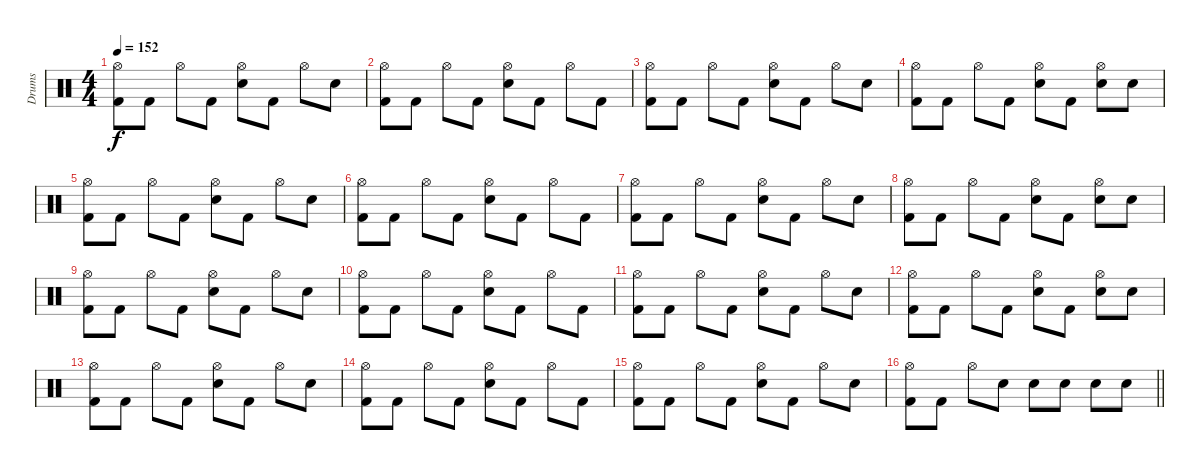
\track ("Drums" "Drums") {instrument percussion}
\staff {score}
\articulation defaults
\ts (4 4)
\tempo 152
\clef neutral
\ks c
("Hi-Hat (open)" "Kick (hit) 2").8{dy f} "Kick (hit) 2".8 "Hi-Hat (open)".8 "Kick (hit) 2".8 ("Hi-Hat (open)" "Electric Snare (hit)").8 "Kick (hit) 2".8 "Hi-Hat (open)".8 "Electric Snare (hit)".8 |
("Hi-Hat (open)" "Kick (hit) 2").8 "Kick (hit) 2".8 "Hi-Hat (open)".8 "Kick (hit) 2".8 ("Hi-Hat (open)" "Electric Snare (hit)").8 "Kick (hit) 2".8 "Hi-Hat (open)".8 "Kick (hit) 2".8 |
("Hi-Hat (open)" "Kick (hit) 2").8 "Kick (hit) 2".8 "Hi-Hat (open)".8 "Kick (hit) 2".8 ("Hi-Hat (open)" "Electric Snare (hit)").8 "Kick (hit) 2".8 "Hi-Hat (open)".8 "Electric Snare (hit)".8 |
("Hi-Hat (open)" "Kick (hit) 2").8 "Kick (hit) 2".8 "Hi-Hat (open)".8 "Kick (hit) 2".8 ("Hi-Hat (open)" "Electric Snare (hit)").8 "Kick (hit) 2".8 ("Hi-Hat (open)" "Electric Snare (hit)").8 "Electric Snare (hit)".8 |
("Hi-Hat (open)" "Kick (hit) 2").8 "Kick (hit) 2".8 "Hi-Hat (open)".8 "Kick (hit) 2".8 ("Hi-Hat (open)" "Electric Snare (hit)").8 "Kick (hit) 2".8 "Hi-Hat (open)".8 "Electric Snare (hit)".8 |
("Hi-Hat (open)" "Kick (hit) 2").8 "Kick (hit) 2".8 "Hi-Hat (open)".8 "Kick (hit) 2".8 ("Hi-Hat (open)" "Electric Snare (hit)").8 "Kick (hit) 2".8 "Hi-Hat (open)".8 "Kick (hit) 2".8 |
("Hi-Hat (open)" "Kick (hit) 2").8 "Kick (hit) 2".8 "Hi-Hat (open)".8 "Kick (hit) 2".8 ("Hi-Hat (open)" "Electric Snare (hit)").8 "Kick (hit) 2".8 "Hi-Hat (open)".8 "Electric Snare (hit)".8 |
("Hi-Hat (open)" "Kick (hit) 2").8 "Kick (hit) 2".8 "Hi-Hat (open)".8 "Kick (hit) 2".8 ("Hi-Hat (open)" "Electric Snare (hit)").8 "Kick (hit) 2".8 ("Hi-Hat (open)" "Electric Snare (hit)").8 "Electric Snare (hit)".8 |
("Hi-Hat (open)" "Kick (hit) 2").8 "Kick (hit) 2".8 "Hi-Hat (open)".8 "Kick (hit) 2".8 ("Hi-Hat (open)" "Electric Snare (hit)").8 "Kick (hit) 2".8 "Hi-Hat (open)".8 "Electric Snare (hit)".8 |
("Hi-Hat (open)" "Kick (hit) 2").8 "Kick (hit) 2".8 "Hi-Hat (open)".8 "Kick (hit) 2".8 ("Hi-Hat (open)" "Electric Snare (hit)").8 "Kick (hit) 2".8 "Hi-Hat (open)".8 "Kick (hit) 2".8 |
("Hi-Hat (open)" "Kick (hit) 2").8 "Kick (hit) 2".8 "Hi-Hat (open)".8 "Kick (hit) 2".8 ("Hi-Hat (open)" "Electric Snare (hit)").8 "Kick (hit) 2".8 "Hi-Hat (open)".8 "Electric Snare (hit)".8 |
("Hi-Hat (open)" "Kick (hit) 2").8 "Kick (hit) 2".8 "Hi-Hat (open)".8 "Kick (hit) 2".8 ("Hi-Hat (open)" "Electric Snare (hit)").8 "Kick (hit) 2".8 ("Hi-Hat (open)" "Electric Snare (hit)").8 "Electric Snare (hit)".8 |
("Hi-Hat (open)" "Kick (hit) 2").8 "Kick (hit) 2".8 "Hi-Hat (open)".8 "Kick (hit) 2".8 ("Hi-Hat (open)" "Electric Snare (hit)").8 "Kick (hit) 2".8 "Hi-Hat (open)".8 "Electric Snare (hit)".8 |
("Hi-Hat (open)" "Kick (hit) 2").8 "Kick (hit) 2".8 "Hi-Hat (open)".8 "Kick (hit) 2".8 ("Hi-Hat (open)" "Electric Snare (hit)").8 "Kick (hit) 2".8 "Hi-Hat (open)".8 "Kick (hit) 2".8 |
("Hi-Hat (open)" "Kick (hit) 2").8 "Kick (hit) 2".8 "Hi-Hat (open)".8 "Kick (hit) 2".8 ("Hi-Hat (open)" "Electric Snare (hit)").8 "Kick (hit) 2".8 "Hi-Hat (open)".8 "Electric Snare (hit)".8 |
\barLineRight lightlight
("Hi-Hat (open)" "Kick (hit) 2").8 "Kick (hit) 2".8 "Hi-Hat (open)".8 "Electric Snare (hit)".8 "Electric Snare (hit)".8 "Electric Snare (hit)".8 "Electric Snare (hit)".8 "Electric Snare (hit)".8
